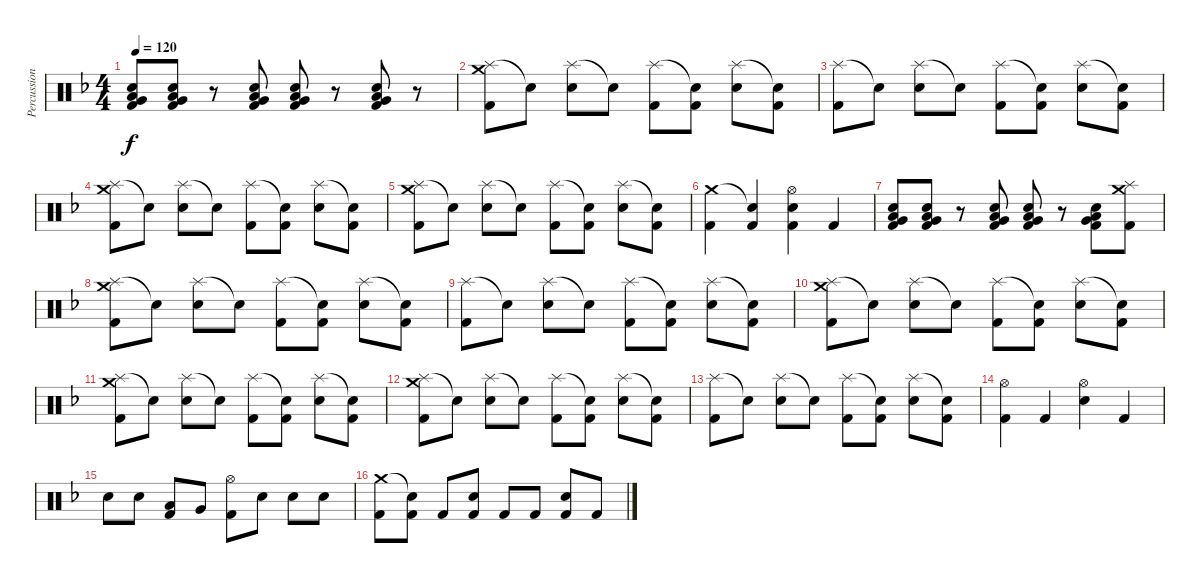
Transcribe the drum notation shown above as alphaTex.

\track ("Percussion" "Percussion") {instrument percussion}
\staff {score}
\articulation defaults
\ts (4 4)
\tempo 120
\clef neutral
\ks f
("Electric Snare (hit)" "Low Floor Tom (hit)" "Very Low Tom (hit)" "Kick (hit) 2").8{dy f} ("Electric Snare (hit)" "Low Floor Tom (hit)" "Very Low Tom (hit)" "Kick (hit) 2").8 r.8 ("Electric Snare (hit)" "Low Floor Tom (hit)" "Very Low Tom (hit)" "Kick (hit) 2").8 ("Electric Snare (hit)" "Low Floor Tom (hit)" "Very Low Tom (hit)" "Kick (hit) 2").8 r.8 ("Electric Snare (hit)" "Low Floor Tom (hit)" "Very Low Tom (hit)" "Kick (hit) 2").8 r.8 |
("Splash (hit)" "Crash medium (hit)" "Kick (hit) 2").8 "Snare (hit)"{t}.8 ("Splash (hit)" "Electric Snare (hit)").8 "Snare (hit)"{t}.8 ("Splash (hit)" "Kick (hit) 2").8 ("Snare (hit)"{t} "Kick (hit) 2").8 ("Splash (hit)" "Electric Snare (hit)").8 ("Snare (hit)"{t} "Kick (hit) 2").8 |
("Splash (hit)" "Kick (hit) 2").8 "Snare (hit)"{t}.8 ("Splash (hit)" "Electric Snare (hit)").8 "Snare (hit)"{t}.8 ("Splash (hit)" "Kick (hit) 2").8 ("Snare (hit)"{t} "Kick (hit) 2").8 ("Splash (hit)" "Electric Snare (hit)").8 ("Snare (hit)"{t} "Kick (hit) 2").8 |
("Splash (hit)" "Crash medium (hit)" "Kick (hit) 2").8 "Snare (hit)"{t}.8 ("Splash (hit)" "Electric Snare (hit)").8 "Snare (hit)"{t}.8 ("Splash (hit)" "Kick (hit) 2").8 ("Snare (hit)"{t} "Kick (hit) 2").8 ("Splash (hit)" "Electric Snare (hit)").8 ("Snare (hit)"{t} "Kick (hit) 2").8 |
("Splash (hit)" "Crash medium (hit)" "Kick (hit) 2").8 "Snare (hit)"{t}.8 ("Splash (hit)" "Electric Snare (hit)").8 "Snare (hit)"{t}.8 ("Splash (hit)" "Kick (hit) 2").8 ("Snare (hit)"{t} "Kick (hit) 2").8 ("Splash (hit)" "Electric Snare (hit)").8 ("Snare (hit)"{t} "Kick (hit) 2").8 |
("Crash medium (hit)" "Kick (hit) 2").4 ("Snare (hit)"{t} "Kick (hit) 2").4 ("Hi-Hat (open)" "Electric Snare (hit)" "Kick (hit) 2").4 "Kick (hit) 2".4 |
("Electric Snare (hit)" "Low Floor Tom (hit)" "Very Low Tom (hit)" "Kick (hit) 2").8 ("Electric Snare (hit)" "Low Floor Tom (hit)" "Very Low Tom (hit)" "Kick (hit) 2").8 r.8 ("Electric Snare (hit)" "Low Floor Tom (hit)" "Very Low Tom (hit)" "Kick (hit) 2").8 ("Electric Snare (hit)" "Low Floor Tom (hit)" "Very Low Tom (hit)" "Kick (hit) 2").8 r.8 ("Electric Snare (hit)" "Low Floor Tom (hit)" "Very Low Tom (hit)" "Kick (hit) 2").8 ("Splash (hit)" "Crash medium (hit)" "Kick (hit) 2").8 |
("Splash (hit)" "Crash medium (hit)" "Kick (hit) 2").8 "Snare (hit)"{t}.8 ("Splash (hit)" "Electric Snare (hit)").8 "Snare (hit)"{t}.8 ("Splash (hit)" "Kick (hit) 2").8 ("Snare (hit)"{t} "Kick (hit) 2").8 ("Splash (hit)" "Electric Snare (hit)").8 ("Snare (hit)"{t} "Kick (hit) 2").8 |
("Splash (hit)" "Kick (hit) 2").8 "Snare (hit)"{t}.8 ("Splash (hit)" "Electric Snare (hit)").8 "Snare (hit)"{t}.8 ("Splash (hit)" "Kick (hit) 2").8 ("Snare (hit)"{t} "Kick (hit) 2").8 ("Splash (hit)" "Electric Snare (hit)").8 ("Snare (hit)"{t} "Kick (hit) 2").8 |
("Splash (hit)" "Crash medium (hit)" "Kick (hit) 2").8 "Snare (hit)"{t}.8 ("Splash (hit)" "Electric Snare (hit)").8 "Snare (hit)"{t}.8 ("Splash (hit)" "Kick (hit) 2").8 ("Snare (hit)"{t} "Kick (hit) 2").8 ("Splash (hit)" "Electric Snare (hit)").8 ("Snare (hit)"{t} "Kick (hit) 2").8 |
("Splash (hit)" "Crash medium (hit)" "Kick (hit) 2").8 "Snare (hit)"{t}.8 ("Splash (hit)" "Electric Snare (hit)").8 "Snare (hit)"{t}.8 ("Splash (hit)" "Kick (hit) 2").8 ("Snare (hit)"{t} "Kick (hit) 2").8 ("Splash (hit)" "Electric Snare (hit)").8 ("Snare (hit)"{t} "Kick (hit) 2").8 |
("Splash (hit)" "Crash medium (hit)" "Kick (hit) 2").8 "Snare (hit)"{t}.8 ("Splash (hit)" "Electric Snare (hit)").8 "Snare (hit)"{t}.8 ("Splash (hit)" "Kick (hit) 2").8 ("Snare (hit)"{t} "Kick (hit) 2").8 ("Splash (hit)" "Electric Snare (hit)").8 ("Snare (hit)"{t} "Kick (hit) 2").8 |
("Splash (hit)" "Kick (hit) 2").8 "Snare (hit)"{t}.8 ("Splash (hit)" "Electric Snare (hit)").8 "Snare (hit)"{t}.8 ("Splash (hit)" "Kick (hit) 2").8 ("Snare (hit)"{t} "Kick (hit) 2").8 ("Splash (hit)" "Electric Snare (hit)").8 ("Snare (hit)"{t} "Kick (hit) 2").8 |
("Hi-Hat (open)" "Kick (hit) 2").4 "Kick (hit) 2".4 ("Hi-Hat (open)" "Electric Snare (hit)").4 "Kick (hit) 2".4 |
"Electric Snare (hit)".8 "Electric Snare (hit)".8 ("Low Tom (hit)" "Kick (hit) 2").8 "Very Low Tom (hit)".8 ("Hi-Hat (open)" "Kick (hit) 2").8 "Electric Snare (hit)".8 "Electric Snare (hit)".8 "Electric Snare (hit)".8 |
("Crash medium (hit)" "Kick (hit) 2").8 ("Snare (hit)"{t} "Kick (hit) 2").8 "Kick (hit) 2".8 ("Electric Snare (hit)" "Kick (hit) 2").8 "Kick (hit) 2".8 "Kick (hit) 2".8 ("Electric Snare (hit)" "Kick (hit) 2").8 "Kick (hit) 2".8
